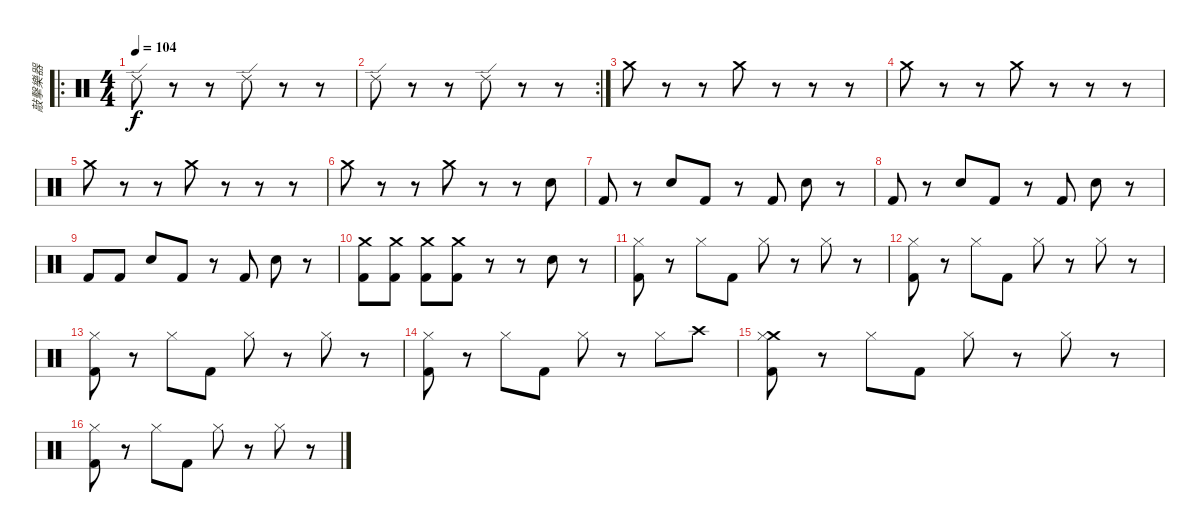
\track ("敲擊樂器" "敲擊樂器") {instrument percussion}
\staff {score}
\articulation defaults
\ro
\ts (4 4)
\tempo 104
\clef neutral
\ks c "Ride (edge) 2".8{dy f}
r.8 r.8 "Ride (edge) 2".8 r.8 r.8 |
\rc 2 "Ride (edge) 2".8
r.8 r.8 "Ride (edge) 2".8 r.8 r.8 |
"Crash medium (hit)".8 r.8 r.8 "Crash medium (hit)".8 r.8 r.8 r.8 |
"Crash medium (hit)".8 r.8 r.8 "Crash medium (hit)".8 r.8 r.8 r.8 |
"Crash medium (hit)".8 r.8 r.8 "Crash medium (hit)".8 r.8 r.8 r.8 |
"Crash medium (hit)".8 r.8 r.8 "Crash medium (hit)".8 r.8 r.8 "Electric Snare (hit)".8 |
"Kick (hit) 2".8 r.8 "Electric Snare (hit)".8 "Kick (hit) 2".8 r.8 "Kick (hit) 2".8 "Electric Snare (hit)".8 r.8 |
"Kick (hit) 2".8 r.8 "Electric Snare (hit)".8 "Kick (hit) 2".8 r.8 "Kick (hit) 2".8 "Electric Snare (hit)".8 r.8 |
"Kick (hit) 2".8 "Kick (hit) 2".8 "Electric Snare (hit)".8 "Kick (hit) 2".8 r.8 "Kick (hit) 2".8 "Electric Snare (hit)".8 r.8 |
("Crash medium (hit)" "Kick (hit) 2").8 ("Crash medium (hit)" "Kick (hit) 2").8 ("Crash medium (hit)" "Kick (hit) 2").8 ("Crash medium (hit)" "Kick (hit) 2").8 r.8 r.8 "Electric Snare (hit)".8 r.8 |
("Hi-Hat (closed)" "Kick (hit) 2").8 r.8 "Hi-Hat (closed)".8 "Kick (hit) 2".8 "Hi-Hat (closed)".8 r.8 "Hi-Hat (closed)".8 r.8 |
("Hi-Hat (closed)" "Kick (hit) 2").8 r.8 "Hi-Hat (closed)".8 "Kick (hit) 2".8 "Hi-Hat (closed)".8 r.8 "Hi-Hat (closed)".8 r.8 |
("Hi-Hat (closed)" "Kick (hit) 2").8 r.8 "Hi-Hat (closed)".8 "Kick (hit) 2".8 "Hi-Hat (closed)".8 r.8 "Hi-Hat (closed)".8 r.8 |
("Hi-Hat (closed)" "Kick (hit) 2").8 r.8 "Hi-Hat (closed)".8 "Kick (hit) 2".8 "Hi-Hat (closed)".8 r.8 "Hi-Hat (closed)".8 "Crash high (hit)".8 |
("Crash medium (hit)" "Hi-Hat (closed)" "Kick (hit) 2").8 r.8 "Hi-Hat (closed)".8 "Kick (hit) 2".8 "Hi-Hat (closed)".8 r.8 "Hi-Hat (closed)".8 r.8 |
("Hi-Hat (closed)" "Kick (hit) 2").8 r.8 "Hi-Hat (closed)".8 "Kick (hit) 2".8 "Hi-Hat (closed)".8 r.8 "Hi-Hat (closed)".8 r.8
